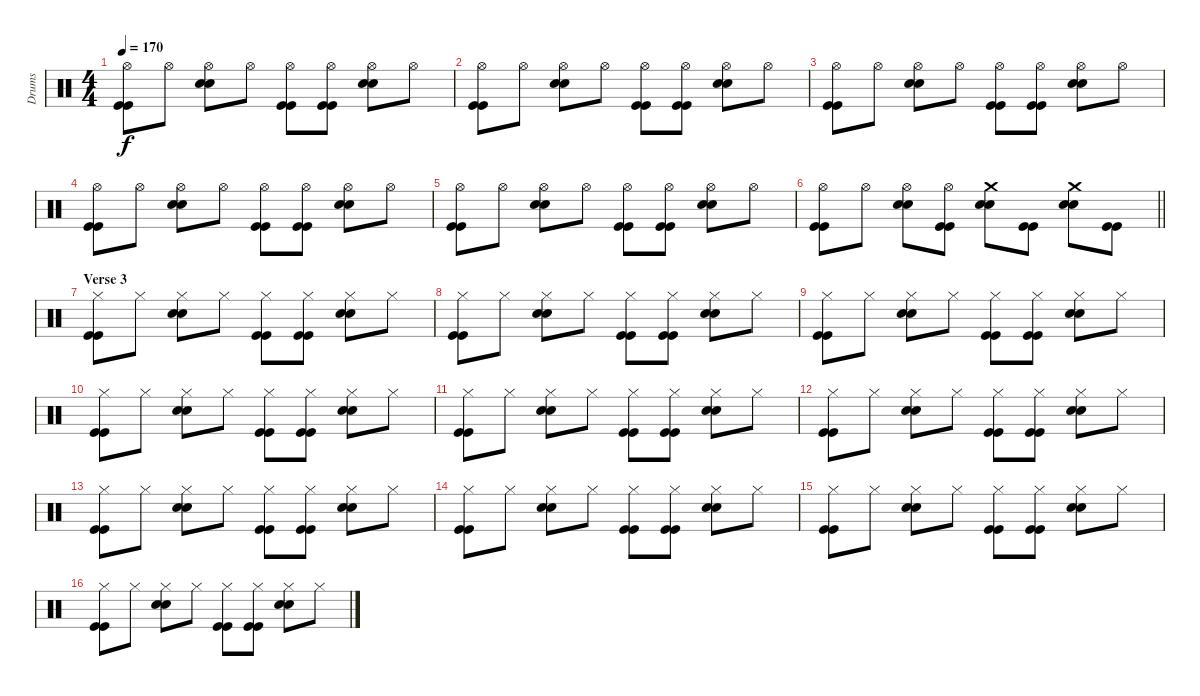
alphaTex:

\track ("Drums" "Drums") {instrument percussion}
\staff {score}
\articulation defaults
\ts (4 4)
\tempo 170
\clef neutral
\ks c
("Hi-Hat (open)" "Kick (hit)" "Kick (hit)").8{dy f} "Hi-Hat (open)".8 ("Hi-Hat (open)" "Snare (hit) 2" "Snare (hit) 2").8 "Hi-Hat (open)".8 ("Hi-Hat (open)" "Kick (hit)" "Kick (hit)").8 ("Hi-Hat (open)" "Kick (hit)" "Kick (hit)").8 ("Hi-Hat (open)" "Snare (hit) 2" "Snare (hit) 2").8 "Hi-Hat (open)".8 |
("Hi-Hat (open)" "Kick (hit)" "Kick (hit)").8 "Hi-Hat (open)".8 ("Hi-Hat (open)" "Snare (hit) 2" "Snare (hit) 2").8 "Hi-Hat (open)".8 ("Hi-Hat (open)" "Kick (hit)" "Kick (hit)").8 ("Hi-Hat (open)" "Kick (hit)" "Kick (hit)").8 ("Hi-Hat (open)" "Snare (hit) 2" "Snare (hit) 2").8 "Hi-Hat (open)".8 |
("Hi-Hat (open)" "Kick (hit)" "Kick (hit)").8 "Hi-Hat (open)".8 ("Hi-Hat (open)" "Snare (hit) 2" "Snare (hit) 2").8 "Hi-Hat (open)".8 ("Hi-Hat (open)" "Kick (hit)" "Kick (hit)").8 ("Hi-Hat (open)" "Kick (hit)" "Kick (hit)").8 ("Hi-Hat (open)" "Snare (hit) 2" "Snare (hit) 2").8 "Hi-Hat (open)".8 |
("Hi-Hat (open)" "Kick (hit)" "Kick (hit)").8 "Hi-Hat (open)".8 ("Hi-Hat (open)" "Snare (hit) 2" "Snare (hit) 2").8 "Hi-Hat (open)".8 ("Hi-Hat (open)" "Kick (hit)" "Kick (hit)").8 ("Hi-Hat (open)" "Kick (hit)" "Kick (hit)").8 ("Hi-Hat (open)" "Snare (hit) 2" "Snare (hit) 2").8 "Hi-Hat (open)".8 |
("Hi-Hat (open)" "Kick (hit)" "Kick (hit)").8 "Hi-Hat (open)".8 ("Hi-Hat (open)" "Snare (hit) 2" "Snare (hit) 2").8 "Hi-Hat (open)".8 ("Hi-Hat (open)" "Kick (hit)" "Kick (hit)").8 ("Hi-Hat (open)" "Kick (hit)" "Kick (hit)").8 ("Hi-Hat (open)" "Snare (hit) 2" "Snare (hit) 2").8 "Hi-Hat (open)".8 |
\barLineRight lightlight
("Hi-Hat (open)" "Kick (hit)" "Kick (hit)").8 "Hi-Hat (open)".8 ("Hi-Hat (open)" "Snare (hit) 2" "Snare (hit) 2").8 ("Hi-Hat (open)" "Kick (hit)" "Kick (hit)").8 ("Crash medium (hit)" "Snare (hit) 2" "Snare (hit) 2").8 ("Kick (hit)" "Kick (hit)").8 ("Crash medium (hit)" "Snare (hit) 2" "Snare (hit) 2").8 ("Kick (hit)" "Kick (hit)").8 |
\section ("" "Verse 3")
("Hi-Hat (closed)" "Kick (hit)" "Kick (hit)").8 "Hi-Hat (closed)".8 ("Hi-Hat (closed)" "Snare (hit) 2" "Snare (hit) 2").8 "Hi-Hat (closed)".8 ("Hi-Hat (closed)" "Kick (hit)" "Kick (hit)").8 ("Hi-Hat (closed)" "Kick (hit)" "Kick (hit)").8 ("Hi-Hat (closed)" "Snare (hit) 2" "Snare (hit) 2").8 "Hi-Hat (closed)".8 |
("Hi-Hat (closed)" "Kick (hit)" "Kick (hit)").8 "Hi-Hat (closed)".8 ("Hi-Hat (closed)" "Snare (hit) 2" "Snare (hit) 2").8 "Hi-Hat (closed)".8 ("Hi-Hat (closed)" "Kick (hit)" "Kick (hit)").8 ("Hi-Hat (closed)" "Kick (hit)" "Kick (hit)").8 ("Hi-Hat (closed)" "Snare (hit) 2" "Snare (hit) 2").8 "Hi-Hat (closed)".8 |
("Hi-Hat (closed)" "Kick (hit)" "Kick (hit)").8 "Hi-Hat (closed)".8 ("Hi-Hat (closed)" "Snare (hit) 2" "Snare (hit) 2").8 "Hi-Hat (closed)".8 ("Hi-Hat (closed)" "Kick (hit)" "Kick (hit)").8 ("Hi-Hat (closed)" "Kick (hit)" "Kick (hit)").8 ("Hi-Hat (closed)" "Snare (hit) 2" "Snare (hit) 2").8 "Hi-Hat (closed)".8 |
("Hi-Hat (closed)" "Kick (hit)" "Kick (hit)").8 "Hi-Hat (closed)".8 ("Hi-Hat (closed)" "Snare (hit) 2" "Snare (hit) 2").8 "Hi-Hat (closed)".8 ("Hi-Hat (closed)" "Kick (hit)" "Kick (hit)").8 ("Hi-Hat (closed)" "Kick (hit)" "Kick (hit)").8 ("Hi-Hat (closed)" "Snare (hit) 2" "Snare (hit) 2").8 "Hi-Hat (closed)".8 |
("Hi-Hat (closed)" "Kick (hit)" "Kick (hit)").8 "Hi-Hat (closed)".8 ("Hi-Hat (closed)" "Snare (hit) 2" "Snare (hit) 2").8 "Hi-Hat (closed)".8 ("Hi-Hat (closed)" "Kick (hit)" "Kick (hit)").8 ("Hi-Hat (closed)" "Kick (hit)" "Kick (hit)").8 ("Hi-Hat (closed)" "Snare (hit) 2" "Snare (hit) 2").8 "Hi-Hat (closed)".8 |
("Hi-Hat (closed)" "Kick (hit)" "Kick (hit)").8 "Hi-Hat (closed)".8 ("Hi-Hat (closed)" "Snare (hit) 2" "Snare (hit) 2").8 "Hi-Hat (closed)".8 ("Hi-Hat (closed)" "Kick (hit)" "Kick (hit)").8 ("Hi-Hat (closed)" "Kick (hit)" "Kick (hit)").8 ("Hi-Hat (closed)" "Snare (hit) 2" "Snare (hit) 2").8 "Hi-Hat (closed)".8 |
("Hi-Hat (closed)" "Kick (hit)" "Kick (hit)").8 "Hi-Hat (closed)".8 ("Hi-Hat (closed)" "Snare (hit) 2" "Snare (hit) 2").8 "Hi-Hat (closed)".8 ("Hi-Hat (closed)" "Kick (hit)" "Kick (hit)").8 ("Hi-Hat (closed)" "Kick (hit)" "Kick (hit)").8 ("Hi-Hat (closed)" "Snare (hit) 2" "Snare (hit) 2").8 "Hi-Hat (closed)".8 |
("Hi-Hat (closed)" "Kick (hit)" "Kick (hit)").8 "Hi-Hat (closed)".8 ("Hi-Hat (closed)" "Snare (hit) 2" "Snare (hit) 2").8 "Hi-Hat (closed)".8 ("Hi-Hat (closed)" "Kick (hit)" "Kick (hit)").8 ("Hi-Hat (closed)" "Kick (hit)" "Kick (hit)").8 ("Hi-Hat (closed)" "Snare (hit) 2" "Snare (hit) 2").8 "Hi-Hat (closed)".8 |
("Hi-Hat (closed)" "Kick (hit)" "Kick (hit)").8 "Hi-Hat (closed)".8 ("Hi-Hat (closed)" "Snare (hit) 2" "Snare (hit) 2").8 "Hi-Hat (closed)".8 ("Hi-Hat (closed)" "Kick (hit)" "Kick (hit)").8 ("Hi-Hat (closed)" "Kick (hit)" "Kick (hit)").8 ("Hi-Hat (closed)" "Snare (hit) 2" "Snare (hit) 2").8 "Hi-Hat (closed)".8 |
("Hi-Hat (closed)" "Kick (hit)" "Kick (hit)").8 "Hi-Hat (closed)".8 ("Hi-Hat (closed)" "Snare (hit) 2" "Snare (hit) 2").8 "Hi-Hat (closed)".8 ("Hi-Hat (closed)" "Kick (hit)" "Kick (hit)").8 ("Hi-Hat (closed)" "Kick (hit)" "Kick (hit)").8 ("Hi-Hat (closed)" "Snare (hit) 2" "Snare (hit) 2").8 "Hi-Hat (closed)".8
